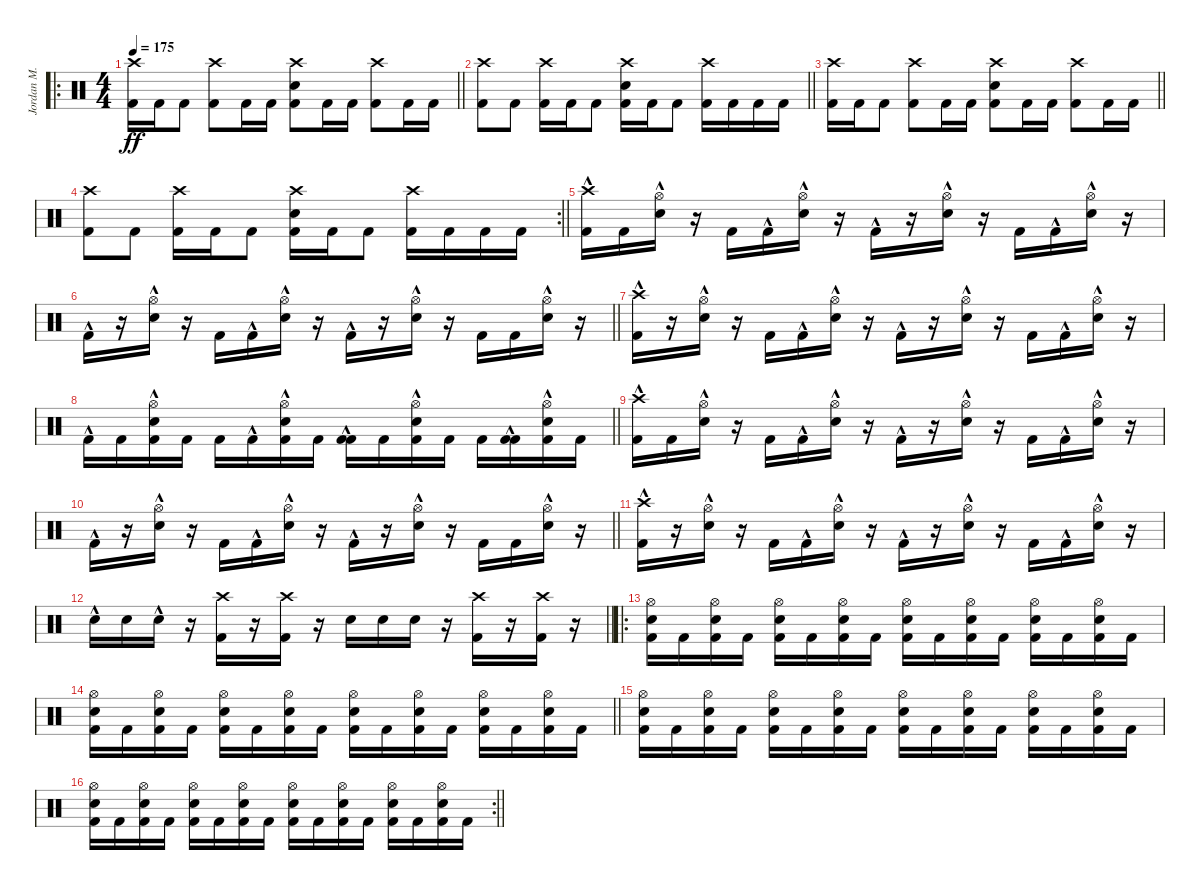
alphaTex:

\track ("Jordan M." "Jordan M.") {instrument percussion}
\staff {score}
\articulation defaults
\ro
\ts (4 4)
\tempo 175
\clef neutral
\barLineRight lightlight
\ks c
("Crash high (hit)" "Kick (hit) 2").16{dy ff} "Kick (hit) 2".16 "Kick (hit) 2".8 ("Crash high (hit)" "Kick (hit) 2").8 "Kick (hit) 2".16 "Kick (hit) 2".16 ("Crash high (hit)" "Electric Snare (hit)" "Kick (hit) 2").8 "Kick (hit) 2".16 "Kick (hit) 2".16 ("Crash high (hit)" "Kick (hit) 2").8 "Kick (hit) 2".16 "Kick (hit) 2".16 |
\barLineRight lightlight
("Crash high (hit)" "Kick (hit) 2").8 "Kick (hit) 2".8 ("Crash high (hit)" "Kick (hit) 2").16 "Kick (hit) 2".16 "Kick (hit) 2".8 ("Crash high (hit)" "Electric Snare (hit)" "Kick (hit) 2").16 "Kick (hit) 2".16 "Kick (hit) 2".8 ("Crash high (hit)" "Kick (hit) 2").16 "Kick (hit) 2".16 "Kick (hit) 2".16 "Kick (hit) 2".16 |
\barLineRight lightlight
("Crash high (hit)" "Kick (hit) 2").16 "Kick (hit) 2".16 "Kick (hit) 2".8 ("Crash high (hit)" "Kick (hit) 2").8 "Kick (hit) 2".16 "Kick (hit) 2".16 ("Crash high (hit)" "Electric Snare (hit)" "Kick (hit) 2").8 "Kick (hit) 2".16 "Kick (hit) 2".16 ("Crash high (hit)" "Kick (hit) 2").8 "Kick (hit) 2".16 "Kick (hit) 2".16 |
\rc 2
\barLineRight lightlight
("Crash high (hit)" "Kick (hit) 2").8 "Kick (hit) 2".8 ("Crash high (hit)" "Kick (hit) 2").16 "Kick (hit) 2".16 "Kick (hit) 2".8 ("Crash high (hit)" "Electric Snare (hit)" "Kick (hit) 2").16 "Kick (hit) 2".16 "Kick (hit) 2".8 ("Crash high (hit)" "Kick (hit) 2").16 "Kick (hit) 2".16 "Kick (hit) 2".16 "Kick (hit) 2".16 |
("Crash high (hit)" "Kick (hit) 2"{hac}).16 "Kick (hit) 2".16 ("Hi-Hat (open)" "Electric Snare (hit)"{hac}).16 r.16 "Kick (hit) 2".16 "Kick (hit) 2"{hac}.16 ("Hi-Hat (open)" "Electric Snare (hit)"{hac}).16 r.16 "Kick (hit) 2"{hac}.16 r.16 ("Hi-Hat (open)" "Electric Snare (hit)"{hac}).16 r.16 "Kick (hit) 2".16 "Kick (hit) 2"{hac}.16 ("Hi-Hat (open)" "Electric Snare (hit)"{hac}).16 r.16 |
\barLineRight lightlight "Kick (hit) 2"{hac}.16
r.16 ("Hi-Hat (open)" "Electric Snare (hit)"{hac}).16 r.16 "Kick (hit) 2".16 "Kick (hit) 2"{hac}.16 ("Hi-Hat (open)" "Electric Snare (hit)"{hac}).16 r.16 "Kick (hit) 2"{hac}.16 r.16 ("Hi-Hat (open)" "Electric Snare (hit)"{hac}).16 r.16 "Kick (hit) 2".16 "Kick (hit) 2".16 ("Hi-Hat (open)" "Electric Snare (hit)"{hac}).16 r.16 |
("Crash high (hit)" "Kick (hit) 2"{hac}).16 r.16 ("Hi-Hat (open)" "Electric Snare (hit)"{hac}).16 r.16 "Kick (hit) 2".16 "Kick (hit) 2"{hac}.16 ("Hi-Hat (open)" "Electric Snare (hit)"{hac}).16 r.16 "Kick (hit) 2"{hac}.16 r.16 ("Hi-Hat (open)" "Electric Snare (hit)"{hac}).16 r.16 "Kick (hit) 2".16 "Kick (hit) 2"{hac}.16 ("Hi-Hat (open)" "Electric Snare (hit)"{hac}).16 r.16 |
\barLineRight lightlight "Kick (hit) 2"{hac}.16 "Kick (hit) 2".16
("Hi-Hat (open)" "Electric Snare (hit)"{hac} "Kick (hit) 2").16 "Kick (hit) 2".16 "Kick (hit) 2".16 "Kick (hit) 2"{hac}.16 ("Hi-Hat (open)" "Electric Snare (hit)"{hac} "Kick (hit) 2").16 "Kick (hit) 2".16 ("Kick (hit) 2"{hac} "Kick (hit) 2").16 "Kick (hit) 2".16 ("Hi-Hat (open)" "Electric Snare (hit)"{hac} "Kick (hit) 2").16 "Kick (hit) 2".16 "Kick (hit) 2".16 ("Kick (hit) 2"{hac} "Kick (hit) 2").16 ("Hi-Hat (open)" "Electric Snare (hit)"{hac} "Kick (hit) 2").16 "Kick (hit) 2".16 |
("Crash high (hit)" "Kick (hit) 2"{hac}).16 "Kick (hit) 2".16 ("Hi-Hat (open)" "Electric Snare (hit)"{hac}).16 r.16 "Kick (hit) 2".16 "Kick (hit) 2"{hac}.16 ("Hi-Hat (open)" "Electric Snare (hit)"{hac}).16 r.16 "Kick (hit) 2"{hac}.16 r.16 ("Hi-Hat (open)" "Electric Snare (hit)"{hac}).16 r.16 "Kick (hit) 2".16 "Kick (hit) 2"{hac}.16 ("Hi-Hat (open)" "Electric Snare (hit)"{hac}).16 r.16 |
\barLineRight lightlight "Kick (hit) 2"{hac}.16
r.16 ("Hi-Hat (open)" "Electric Snare (hit)"{hac}).16 r.16 "Kick (hit) 2".16 "Kick (hit) 2"{hac}.16 ("Hi-Hat (open)" "Electric Snare (hit)"{hac}).16 r.16 "Kick (hit) 2"{hac}.16 r.16 ("Hi-Hat (open)" "Electric Snare (hit)"{hac}).16 r.16 "Kick (hit) 2".16 "Kick (hit) 2".16 ("Hi-Hat (open)" "Electric Snare (hit)"{hac}).16 r.16 |
("Crash high (hit)" "Kick (hit) 2"{hac}).16 r.16 ("Hi-Hat (open)" "Electric Snare (hit)"{hac}).16 r.16 "Kick (hit) 2".16 "Kick (hit) 2"{hac}.16 ("Hi-Hat (open)" "Electric Snare (hit)"{hac}).16 r.16 "Kick (hit) 2"{hac}.16 r.16 ("Hi-Hat (open)" "Electric Snare (hit)"{hac}).16 r.16 "Kick (hit) 2".16 "Kick (hit) 2"{hac}.16 ("Hi-Hat (open)" "Electric Snare (hit)"{hac}).16 r.16 |
\barLineRight lightlight "Electric Snare (hit)"{hac}.16 "Electric Snare (hit)".16 "Electric Snare (hit)"{hac}.16
r.16 ("Crash high (hit)" "Kick (hit) 2").16 r.16 ("Crash high (hit)" "Kick (hit) 2").16 r.16 "Electric Snare (hit)".16 "Electric Snare (hit)".16 "Electric Snare (hit)".16 r.16 ("Crash high (hit)" "Kick (hit) 2").16 r.16 ("Crash high (hit)" "Kick (hit) 2").16 r.16 |
\ro
("Hi-Hat (open)" "Electric Snare (hit)" "Kick (hit) 2").16 "Kick (hit) 2".16 ("Hi-Hat (open)" "Electric Snare (hit)" "Kick (hit) 2").16 "Kick (hit) 2".16 ("Hi-Hat (open)" "Electric Snare (hit)" "Kick (hit) 2").16 "Kick (hit) 2".16 ("Hi-Hat (open)" "Electric Snare (hit)" "Kick (hit) 2").16 "Kick (hit) 2".16 ("Hi-Hat (open)" "Electric Snare (hit)" "Kick (hit) 2").16 "Kick (hit) 2".16 ("Hi-Hat (open)" "Electric Snare (hit)" "Kick (hit) 2").16 "Kick (hit) 2".16 ("Hi-Hat (open)" "Electric Snare (hit)" "Kick (hit) 2").16 "Kick (hit) 2".16 ("Hi-Hat (open)" "Electric Snare (hit)" "Kick (hit) 2").16 "Kick (hit) 2".16 |
\barLineRight lightlight
("Hi-Hat (open)" "Electric Snare (hit)" "Kick (hit) 2").16 "Kick (hit) 2".16 ("Hi-Hat (open)" "Electric Snare (hit)" "Kick (hit) 2").16 "Kick (hit) 2".16 ("Hi-Hat (open)" "Electric Snare (hit)" "Kick (hit) 2").16 "Kick (hit) 2".16 ("Hi-Hat (open)" "Electric Snare (hit)" "Kick (hit) 2").16 "Kick (hit) 2".16 ("Hi-Hat (open)" "Electric Snare (hit)" "Kick (hit) 2").16 "Kick (hit) 2".16 ("Hi-Hat (open)" "Electric Snare (hit)" "Kick (hit) 2").16 "Kick (hit) 2".16 ("Hi-Hat (open)" "Electric Snare (hit)" "Kick (hit) 2").16 "Kick (hit) 2".16 ("Hi-Hat (open)" "Electric Snare (hit)" "Kick (hit) 2").16 "Kick (hit) 2".16 |
("Hi-Hat (open)" "Electric Snare (hit)" "Kick (hit) 2").16 "Kick (hit) 2".16 ("Hi-Hat (open)" "Electric Snare (hit)" "Kick (hit) 2").16 "Kick (hit) 2".16 ("Hi-Hat (open)" "Electric Snare (hit)" "Kick (hit) 2").16 "Kick (hit) 2".16 ("Hi-Hat (open)" "Electric Snare (hit)" "Kick (hit) 2").16 "Kick (hit) 2".16 ("Hi-Hat (open)" "Electric Snare (hit)" "Kick (hit) 2").16 "Kick (hit) 2".16 ("Hi-Hat (open)" "Electric Snare (hit)" "Kick (hit) 2").16 "Kick (hit) 2".16 ("Hi-Hat (open)" "Electric Snare (hit)" "Kick (hit) 2").16 "Kick (hit) 2".16 ("Hi-Hat (open)" "Electric Snare (hit)" "Kick (hit) 2").16 "Kick (hit) 2".16 |
\rc 2
\barLineRight lightlight
("Hi-Hat (open)" "Electric Snare (hit)" "Kick (hit) 2").16 "Kick (hit) 2".16 ("Hi-Hat (open)" "Electric Snare (hit)" "Kick (hit) 2").16 "Kick (hit) 2".16 ("Hi-Hat (open)" "Electric Snare (hit)" "Kick (hit) 2").16 "Kick (hit) 2".16 ("Hi-Hat (open)" "Electric Snare (hit)" "Kick (hit) 2").16 "Kick (hit) 2".16 ("Hi-Hat (open)" "Electric Snare (hit)" "Kick (hit) 2").16 "Kick (hit) 2".16 ("Hi-Hat (open)" "Electric Snare (hit)" "Kick (hit) 2").16 "Kick (hit) 2".16 ("Hi-Hat (open)" "Electric Snare (hit)" "Kick (hit) 2").16 "Kick (hit) 2".16 ("Hi-Hat (open)" "Electric Snare (hit)" "Kick (hit) 2").16 "Kick (hit) 2".16
